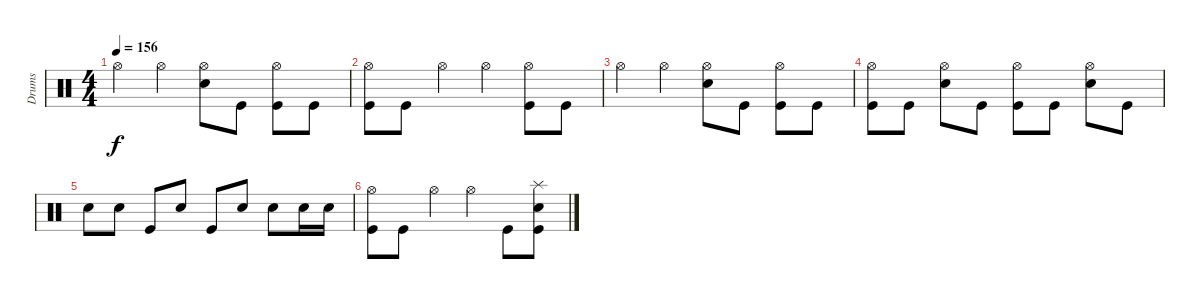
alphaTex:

\track ("Drums" "Drums") {instrument percussion}
\staff {score}
\articulation defaults
\ts (4 4)
\tempo 156
\clef neutral
\ks c "Hi-Hat (open)".4{dy f} "Hi-Hat (open)".4
("Snare (hit) 2" "Hi-Hat (open)").8 "Kick (hit)".8 ("Hi-Hat (open)" "Kick (hit)").8 "Kick (hit)".8 |
("Kick (hit)" "Hi-Hat (open)").8 "Kick (hit)".8 "Hi-Hat (open)".4 "Hi-Hat (open)".4 ("Kick (hit)" "Hi-Hat (open)").8 "Kick (hit)".8 |
"Hi-Hat (open)".4 "Hi-Hat (open)".4 ("Snare (hit) 2" "Hi-Hat (open)").8 "Kick (hit)".8 ("Hi-Hat (open)" "Kick (hit)").8 "Kick (hit)".8 |
("Kick (hit)" "Hi-Hat (open)").8 "Kick (hit)".8 ("Snare (hit) 2" "Hi-Hat (open)").8 "Kick (hit)".8 ("Kick (hit)" "Hi-Hat (open)").8 "Kick (hit)".8 ("Snare (hit) 2" "Hi-Hat (open)").8 "Kick (hit)".8 |
"Snare (hit) 2".8 "Snare (hit) 2".8 "Kick (hit)".8 "Snare (hit) 2".8 "Kick (hit)".8 "Snare (hit) 2".8 "Snare (hit) 2".8 "Snare (hit) 2".16 "Snare (hit) 2".16 |
("Kick (hit)" "Hi-Hat (open)").8 "Kick (hit)".8 "Hi-Hat (open)".4 "Hi-Hat (open)".4 "Kick (hit)".8 ("Snare (hit) 2" "Splash (hit)" "Kick (hit)").8
